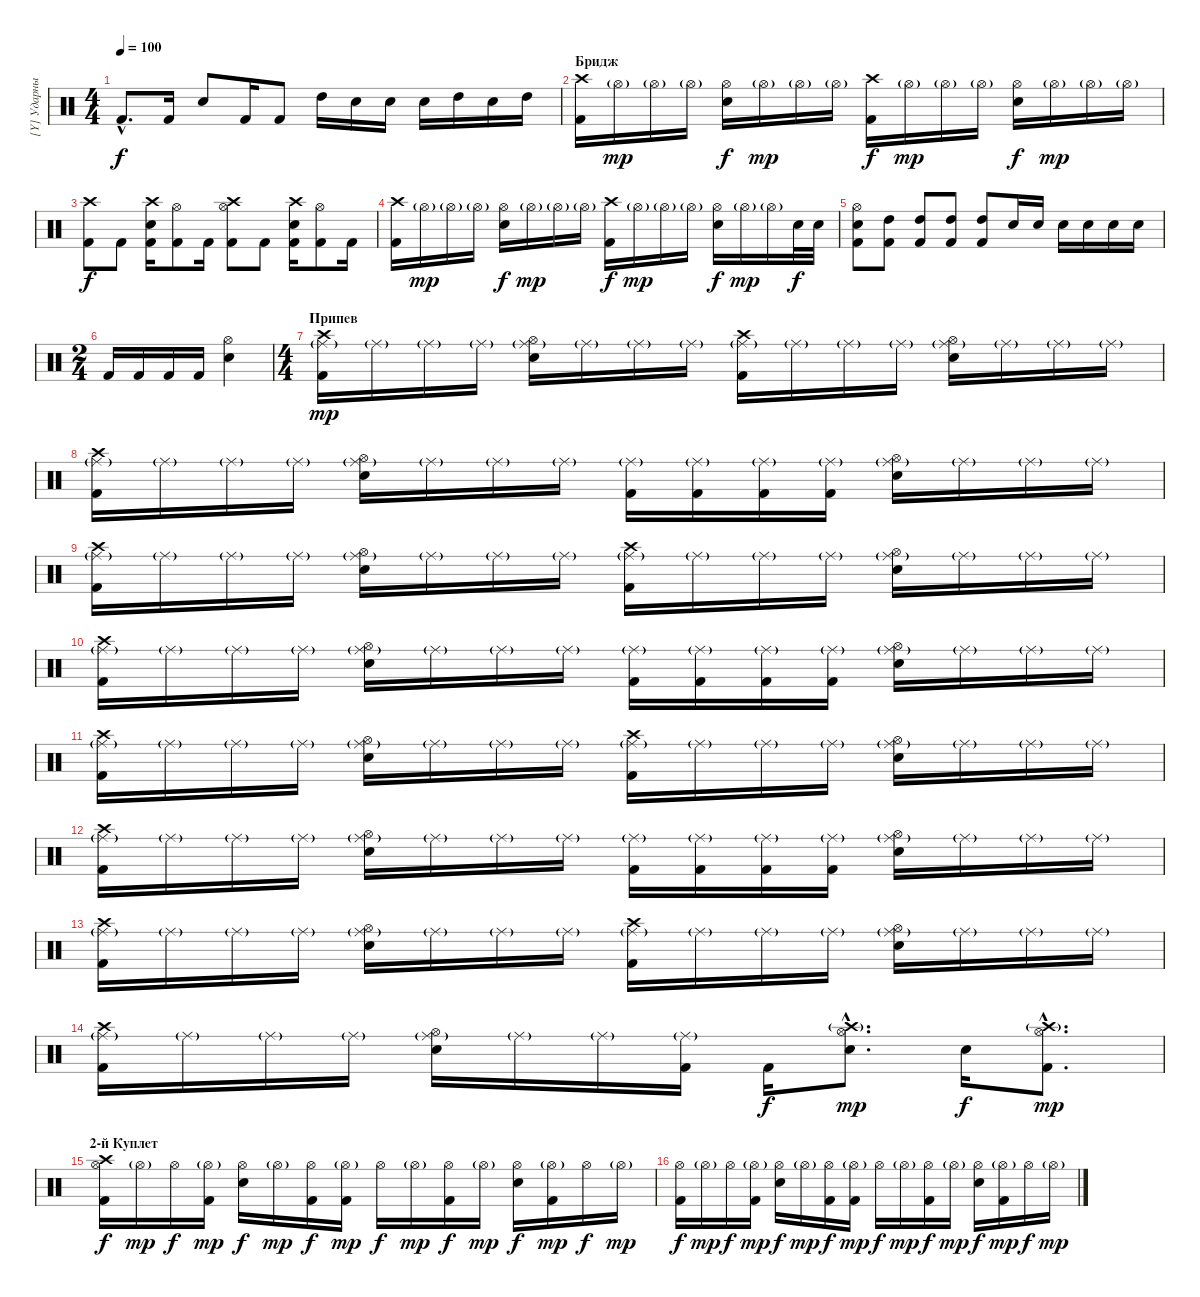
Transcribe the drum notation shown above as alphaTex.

\track ("[Y] Ударные [Stewart]" "[Y] Ударны") {instrument percussion}
\staff {score}
\articulation defaults
\ts (4 4)
\tempo 100
\clef neutral
\ks c "Kick (hit) 2"{hac}.8{d dy f} "Kick (hit) 2".16 "Electric Snare (hit)".8 "Kick (hit) 2".16 "Kick (hit) 2".8 "High Tom (hit)".16 "Electric Snare (hit)".16 "Electric Snare (hit)".16 "Electric Snare (hit)".16 "High Tom (hit)".16 "Electric Snare (hit)".16 "High Tom (hit)".16
|
\section ("" "Бридж")
("Crash high (hit)" "Kick (hit) 2").16 "Hi-Hat (open)"{g}.16{dy mp} "Hi-Hat (open)"{g}.16 "Hi-Hat (open)"{g}.16 ("Hi-Hat (open)" "Electric Snare (hit)").16{dy f} "Hi-Hat (open)"{g}.16{dy mp} "Hi-Hat (open)"{g}.16 "Hi-Hat (open)"{g}.16 ("Crash high (hit)" "Kick (hit) 2").16{dy f} "Hi-Hat (open)"{g}.16{dy mp} "Hi-Hat (open)"{g}.16 "Hi-Hat (open)"{g}.16 ("Hi-Hat (open)" "Electric Snare (hit)").16{dy f} "Hi-Hat (open)"{g}.16{dy mp} "Hi-Hat (open)"{g}.16 "Hi-Hat (open)"{g}.16 |
("Crash high (hit)" "Kick (hit) 2").8{dy f} "Kick (hit) 2".8 ("Crash high (hit)" "Electric Snare (hit)" "Kick (hit) 2").16 ("Hi-Hat (open)" "Kick (hit) 2").8 "Kick (hit) 2".16 ("Crash high (hit)" "Hi-Hat (open)" "Kick (hit) 2").8 "Kick (hit) 2".8 ("Crash high (hit)" "Electric Snare (hit)" "Kick (hit) 2").16 ("Hi-Hat (open)" "Kick (hit) 2").8 "Kick (hit) 2".16 |
("Crash high (hit)" "Kick (hit) 2").16 "Hi-Hat (open)"{g}.16{dy mp} "Hi-Hat (open)"{g}.16 "Hi-Hat (open)"{g}.16 ("Hi-Hat (open)" "Electric Snare (hit)").16{dy f} "Hi-Hat (open)"{g}.16{dy mp} "Hi-Hat (open)"{g}.16 "Hi-Hat (open)"{g}.16 ("Crash high (hit)" "Kick (hit) 2").16{dy f} "Hi-Hat (open)"{g}.16{dy mp} "Hi-Hat (open)"{g}.16 "Hi-Hat (open)"{g}.16 ("Hi-Hat (open)" "Electric Snare (hit)").16{dy f} "Hi-Hat (open)"{g}.16{dy mp} "Hi-Hat (open)"{g}.16 "Electric Snare (hit)".32{dy f} "Electric Snare (hit)".32 |
("Hi-Hat (open)" "Electric Snare (hit)" "Kick (hit) 2").8 ("High Tom (hit)" "Kick (hit) 2").8 ("High Tom (hit)" "Kick (hit) 2").8 ("High Tom (hit)" "Kick (hit) 2").8 ("High Tom (hit)" "Kick (hit) 2").8 "Electric Snare (hit)".16 "Electric Snare (hit)".16 "Electric Snare (hit)".16 "Electric Snare (hit)".16 "Electric Snare (hit)".16 "Electric Snare (hit)".16 |
\ts (2 4)
"Kick (hit) 2".16 "Kick (hit) 2".16 "Kick (hit) 2".16 "Kick (hit) 2".16 ("Hi-Hat (open)" "Electric Snare (hit)").4 |
\ts (4 4)
\section ("" "Припев")
("Crash high (hit)" "Ride (middle)"{g} "Kick (hit) 2").16{dy mp} "Ride (middle)"{g}.16 "Ride (middle)"{g}.16 "Ride (middle)"{g}.16 ("Ride (middle)"{g} "Hi-Hat (open)" "Electric Snare (hit)").16 "Ride (middle)"{g}.16 "Ride (middle)"{g}.16 "Ride (middle)"{g}.16 ("Crash high (hit)" "Ride (middle)"{g} "Kick (hit) 2").16 "Ride (middle)"{g}.16 "Ride (middle)"{g}.16 "Ride (middle)"{g}.16 ("Ride (middle)"{g} "Hi-Hat (open)" "Electric Snare (hit)").16 "Ride (middle)"{g}.16 "Ride (middle)"{g}.16 "Ride (middle)"{g}.16 |
("Crash high (hit)" "Ride (middle)"{g} "Kick (hit) 2").16 "Ride (middle)"{g}.16 "Ride (middle)"{g}.16 "Ride (middle)"{g}.16 ("Ride (middle)"{g} "Hi-Hat (open)" "Electric Snare (hit)").16 "Ride (middle)"{g}.16 "Ride (middle)"{g}.16 "Ride (middle)"{g}.16 ("Ride (middle)"{g} "Kick (hit) 2").16 ("Ride (middle)"{g} "Kick (hit) 2").16 ("Ride (middle)"{g} "Kick (hit) 2").16 ("Ride (middle)"{g} "Kick (hit) 2").16 ("Ride (middle)"{g} "Hi-Hat (open)" "Electric Snare (hit)").16 "Ride (middle)"{g}.16 "Ride (middle)"{g}.16 "Ride (middle)"{g}.16 |
("Crash high (hit)" "Ride (middle)"{g} "Kick (hit) 2").16 "Ride (middle)"{g}.16 "Ride (middle)"{g}.16 "Ride (middle)"{g}.16 ("Ride (middle)"{g} "Hi-Hat (open)" "Electric Snare (hit)").16 "Ride (middle)"{g}.16 "Ride (middle)"{g}.16 "Ride (middle)"{g}.16 ("Crash high (hit)" "Ride (middle)"{g} "Kick (hit) 2").16 "Ride (middle)"{g}.16 "Ride (middle)"{g}.16 "Ride (middle)"{g}.16 ("Ride (middle)"{g} "Hi-Hat (open)" "Electric Snare (hit)").16 "Ride (middle)"{g}.16 "Ride (middle)"{g}.16 "Ride (middle)"{g}.16 |
("Crash high (hit)" "Ride (middle)"{g} "Kick (hit) 2").16 "Ride (middle)"{g}.16 "Ride (middle)"{g}.16 "Ride (middle)"{g}.16 ("Ride (middle)"{g} "Hi-Hat (open)" "Electric Snare (hit)").16 "Ride (middle)"{g}.16 "Ride (middle)"{g}.16 "Ride (middle)"{g}.16 ("Ride (middle)"{g} "Kick (hit) 2").16 ("Ride (middle)"{g} "Kick (hit) 2").16 ("Ride (middle)"{g} "Kick (hit) 2").16 ("Ride (middle)"{g} "Kick (hit) 2").16 ("Ride (middle)"{g} "Hi-Hat (open)" "Electric Snare (hit)").16 "Ride (middle)"{g}.16 "Ride (middle)"{g}.16 "Ride (middle)"{g}.16 |
("Crash high (hit)" "Ride (middle)"{g} "Kick (hit) 2").16 "Ride (middle)"{g}.16 "Ride (middle)"{g}.16 "Ride (middle)"{g}.16 ("Ride (middle)"{g} "Hi-Hat (open)" "Electric Snare (hit)").16 "Ride (middle)"{g}.16 "Ride (middle)"{g}.16 "Ride (middle)"{g}.16 ("Crash high (hit)" "Ride (middle)"{g} "Kick (hit) 2").16 "Ride (middle)"{g}.16 "Ride (middle)"{g}.16 "Ride (middle)"{g}.16 ("Ride (middle)"{g} "Hi-Hat (open)" "Electric Snare (hit)").16 "Ride (middle)"{g}.16 "Ride (middle)"{g}.16 "Ride (middle)"{g}.16 |
("Crash high (hit)" "Ride (middle)"{g} "Kick (hit) 2").16 "Ride (middle)"{g}.16 "Ride (middle)"{g}.16 "Ride (middle)"{g}.16 ("Ride (middle)"{g} "Hi-Hat (open)" "Electric Snare (hit)").16 "Ride (middle)"{g}.16 "Ride (middle)"{g}.16 "Ride (middle)"{g}.16 ("Ride (middle)"{g} "Kick (hit) 2").16 ("Ride (middle)"{g} "Kick (hit) 2").16 ("Ride (middle)"{g} "Kick (hit) 2").16 ("Ride (middle)"{g} "Kick (hit) 2").16 ("Ride (middle)"{g} "Hi-Hat (open)" "Electric Snare (hit)").16 "Ride (middle)"{g}.16 "Ride (middle)"{g}.16 "Ride (middle)"{g}.16 |
("Crash high (hit)" "Ride (middle)"{g} "Kick (hit) 2").16 "Ride (middle)"{g}.16 "Ride (middle)"{g}.16 "Ride (middle)"{g}.16 ("Ride (middle)"{g} "Hi-Hat (open)" "Electric Snare (hit)").16 "Ride (middle)"{g}.16 "Ride (middle)"{g}.16 "Ride (middle)"{g}.16 ("Crash high (hit)" "Ride (middle)"{g} "Kick (hit) 2").16 "Ride (middle)"{g}.16 "Ride (middle)"{g}.16 "Ride (middle)"{g}.16 ("Ride (middle)"{g} "Hi-Hat (open)" "Electric Snare (hit)").16 "Ride (middle)"{g}.16 "Ride (middle)"{g}.16 "Ride (middle)"{g}.16 |
("Crash high (hit)" "Ride (middle)"{g} "Kick (hit) 2").16 "Ride (middle)"{g}.16 "Ride (middle)"{g}.16 "Ride (middle)"{g}.16 ("Ride (middle)"{g} "Hi-Hat (open)" "Electric Snare (hit)").16 "Ride (middle)"{g}.16 "Ride (middle)"{g}.16 ("Ride (middle)"{g} "Kick (hit) 2").16 "Kick (hit) 2".16{dy f} ("Crash high (hit)"{g hac} "Hi-Hat (open)"{hac} "Electric Snare (hit)"{hac}).8{d dy mp} "Electric Snare (hit)".16{dy f} ("Crash high (hit)"{g hac} "Hi-Hat (open)"{hac} "Kick (hit) 2"{hac}).8{d dy mp} |
\section ("" "2-й Куплет")
("Crash high (hit)" "Hi-Hat (open)" "Kick (hit) 2").16{dy f} "Hi-Hat (open)"{g}.16{dy mp} "Hi-Hat (open)".16{dy f} ("Hi-Hat (open)"{g} "Kick (hit) 2").16{dy mp} ("Hi-Hat (open)" "Electric Snare (hit)").16{dy f} "Hi-Hat (open)"{g}.16{dy mp} ("Hi-Hat (open)" "Kick (hit) 2").16{dy f} ("Hi-Hat (open)"{g} "Kick (hit) 2").16{dy mp} "Hi-Hat (open)".16{dy f} "Hi-Hat (open)"{g}.16{dy mp} ("Hi-Hat (open)" "Kick (hit) 2").16{dy f} "Hi-Hat (open)"{g}.16{dy mp} ("Hi-Hat (open)" "Electric Snare (hit)").16{dy f} ("Hi-Hat (open)"{g} "Kick (hit) 2").16{dy mp} "Hi-Hat (open)".16{dy f} "Hi-Hat (open)"{g}.16{dy mp} |
("Hi-Hat (open)" "Kick (hit) 2").16{dy f} "Hi-Hat (open)"{g}.16{dy mp} "Hi-Hat (open)".16{dy f} ("Hi-Hat (open)"{g} "Kick (hit) 2").16{dy mp} ("Hi-Hat (open)" "Electric Snare (hit)").16{dy f} "Hi-Hat (open)"{g}.16{dy mp} ("Hi-Hat (open)" "Kick (hit) 2").16{dy f} ("Hi-Hat (open)"{g} "Kick (hit) 2").16{dy mp} "Hi-Hat (open)".16{dy f} "Hi-Hat (open)"{g}.16{dy mp} ("Hi-Hat (open)" "Kick (hit) 2").16{dy f} "Hi-Hat (open)"{g}.16{dy mp} ("Hi-Hat (open)" "Electric Snare (hit)").16{dy f} ("Hi-Hat (open)"{g} "Kick (hit) 2").16{dy mp} "Hi-Hat (open)".16{dy f} "Hi-Hat (open)"{g}.16{dy mp}
